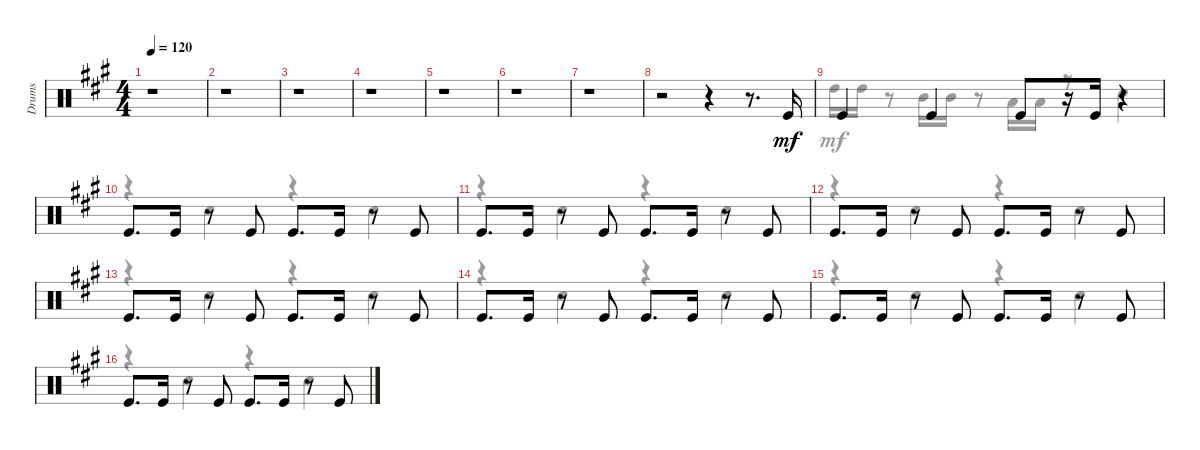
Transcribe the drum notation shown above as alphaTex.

\track ("Drums" "Drums") {instrument percussion}
\staff {score}
\articulation defaults
\voice
\ts (4 4)
\tempo 120
\clef neutral
\ks f#minor
r.1{dy mf} |
r.1 |
r.1 |
r.1 |
r.1 |
r.1 |
r.1 |
r.2 r.4 r.8{d} "Kick (hit)".16 |
"Kick (hit)".4 "Kick (hit)".4 "Kick (hit)".8 r.16 "Kick (hit)".16 r.4 |
"Kick (hit)".8{d} "Kick (hit)".16 r.8 "Kick (hit)".8 "Kick (hit)".8{d} "Kick (hit)".16 r.8 "Kick (hit)".8 |
"Kick (hit)".8{d} "Kick (hit)".16 r.8 "Kick (hit)".8 "Kick (hit)".8{d} "Kick (hit)".16 r.8 "Kick (hit)".8 |
"Kick (hit)".8{d} "Kick (hit)".16 r.8 "Kick (hit)".8 "Kick (hit)".8{d} "Kick (hit)".16 r.8 "Kick (hit)".8 |
"Kick (hit)".8{d} "Kick (hit)".16 r.8 "Kick (hit)".8 "Kick (hit)".8{d} "Kick (hit)".16 r.8 "Kick (hit)".8 |
"Kick (hit)".8{d} "Kick (hit)".16 r.8 "Kick (hit)".8 "Kick (hit)".8{d} "Kick (hit)".16 r.8 "Kick (hit)".8 |
"Kick (hit)".8{d} "Kick (hit)".16 r.8 "Kick (hit)".8 "Kick (hit)".8{d} "Kick (hit)".16 r.8 "Kick (hit)".8 |
"Kick (hit)".8{d} "Kick (hit)".16 r.8 "Kick (hit)".8 "Kick (hit)".8{d} "Kick (hit)".16 r.8 "Kick (hit)".8
\voice
\clef neutral
\ottava regular
\simile none
\ks f#minor
|
|
|
|
|
|
|
|
"High Tom (hit)".16 "High Tom (hit)".16 r.8 "Mid Tom (hit)".16 "Mid Tom (hit)".16 r.8 "Low Tom (hit)".16 "Low Tom (hit)".16 r.8 "Snare (hit) 2".4 |
r.4 "Snare (hit) 2".4 r.4 "Snare (hit) 2".4 |
r.4 "Snare (hit) 2".4 r.4 "Snare (hit) 2".4 |
r.4 "Snare (hit) 2".4 r.4 "Snare (hit) 2".4 |
r.4 "Snare (hit) 2".4 r.4 "Snare (hit) 2".4 |
r.4 "Snare (hit) 2".4 r.4 "Snare (hit) 2".4 |
r.4 "Snare (hit) 2".4 r.4 "Snare (hit) 2".4 |
r.4 "Snare (hit) 2".4 r.4 "Snare (hit) 2".4
